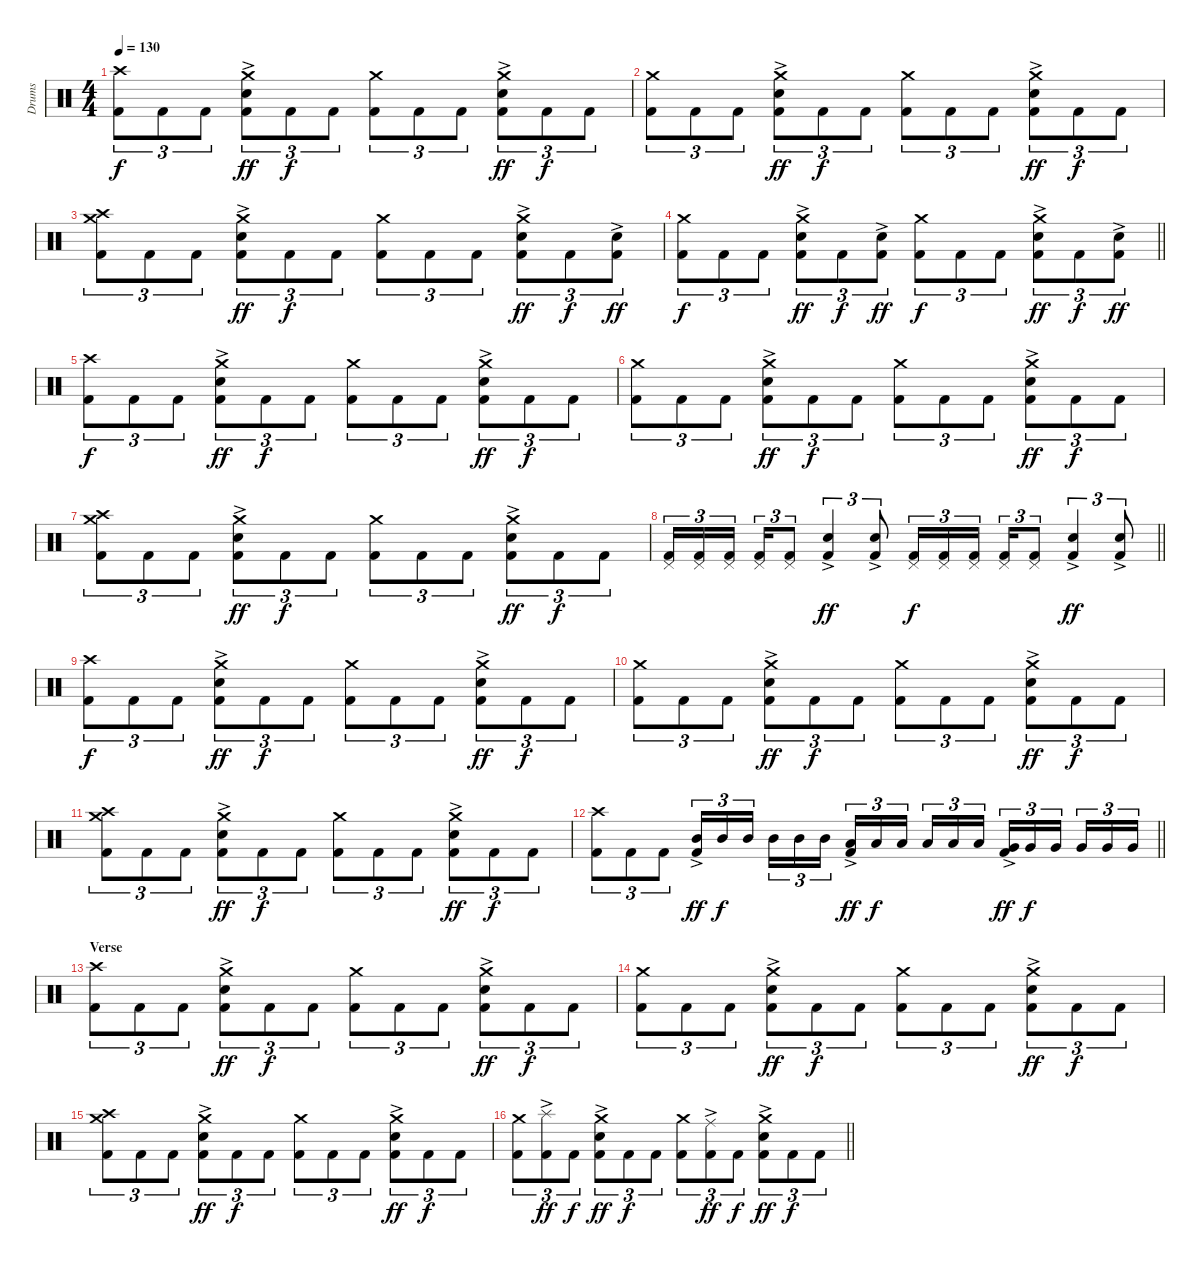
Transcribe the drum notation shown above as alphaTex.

\track ("Drums" "Drums") {instrument percussion}
\staff {score}
\articulation defaults
\ts (4 4)
\section ("" "")
\tempo 130
\clef neutral
\ks c
("Kick (hit) 2" "Crash high (hit)").8{tu (3 2) dy f} "Kick (hit) 2".8{tu (3 2)} "Kick (hit) 2".8{tu (3 2)} ("Kick (hit) 2" "Snare (hit) 2"{ac} "Crash medium (hit)").8{tu (3 2) dy ff} "Kick (hit) 2".8{tu (3 2) dy f} "Kick (hit) 2".8{tu (3 2)} ("Kick (hit) 2" "Crash medium (hit)").8{tu (3 2)} "Kick (hit) 2".8{tu (3 2)} "Kick (hit) 2".8{tu (3 2)} ("Kick (hit) 2" "Snare (hit) 2"{ac} "Crash medium (hit)").8{tu (3 2) dy ff} "Kick (hit) 2".8{tu (3 2) dy f} "Kick (hit) 2".8{tu (3 2)} |
("Kick (hit) 2" "Crash medium (hit)").8{tu (3 2)} "Kick (hit) 2".8{tu (3 2)} "Kick (hit) 2".8{tu (3 2)} ("Kick (hit) 2" "Snare (hit) 2"{ac} "Crash medium (hit)").8{tu (3 2) dy ff} "Kick (hit) 2".8{tu (3 2) dy f} "Kick (hit) 2".8{tu (3 2)} ("Kick (hit) 2" "Crash medium (hit)").8{tu (3 2)} "Kick (hit) 2".8{tu (3 2)} "Kick (hit) 2".8{tu (3 2)} ("Kick (hit) 2" "Snare (hit) 2"{ac} "Crash medium (hit)").8{tu (3 2) dy ff} "Kick (hit) 2".8{tu (3 2) dy f} "Kick (hit) 2".8{tu (3 2)} |
("Kick (hit) 2" "Crash medium (hit)" "Crash high (hit)").8{tu (3 2)} "Kick (hit) 2".8{tu (3 2)} "Kick (hit) 2".8{tu (3 2)} ("Kick (hit) 2" "Snare (hit) 2"{ac} "Crash medium (hit)").8{tu (3 2) dy ff} "Kick (hit) 2".8{tu (3 2) dy f} "Kick (hit) 2".8{tu (3 2)} ("Kick (hit) 2" "Crash medium (hit)").8{tu (3 2)} "Kick (hit) 2".8{tu (3 2)} "Kick (hit) 2".8{tu (3 2)} ("Kick (hit) 2" "Snare (hit) 2"{ac} "Crash medium (hit)").8{tu (3 2) dy ff} "Kick (hit) 2".8{tu (3 2) dy f} ("Kick (hit) 2" "Snare (hit) 2"{ac}).8{tu (3 2) dy ff} |
\barLineRight lightlight
("Kick (hit) 2" "Crash medium (hit)").8{tu (3 2) dy f} "Kick (hit) 2".8{tu (3 2)} "Kick (hit) 2".8{tu (3 2)} ("Kick (hit) 2" "Snare (hit) 2"{ac} "Crash medium (hit)").8{tu (3 2) dy ff} "Kick (hit) 2".8{tu (3 2) dy f} ("Kick (hit) 2" "Snare (hit) 2"{ac}).8{tu (3 2) dy ff} ("Kick (hit) 2" "Crash medium (hit)").8{tu (3 2) dy f} "Kick (hit) 2".8{tu (3 2)} "Kick (hit) 2".8{tu (3 2)} ("Kick (hit) 2" "Snare (hit) 2"{ac} "Crash medium (hit)").8{tu (3 2) dy ff} "Kick (hit) 2".8{tu (3 2) dy f} ("Kick (hit) 2" "Snare (hit) 2"{ac}).8{tu (3 2) dy ff} |
\section ("" "")
("Kick (hit) 2" "Crash high (hit)").8{tu (3 2) dy f} "Kick (hit) 2".8{tu (3 2)} "Kick (hit) 2".8{tu (3 2)} ("Kick (hit) 2" "Snare (hit) 2"{ac} "Crash medium (hit)").8{tu (3 2) dy ff} "Kick (hit) 2".8{tu (3 2) dy f} "Kick (hit) 2".8{tu (3 2)} ("Kick (hit) 2" "Crash medium (hit)").8{tu (3 2)} "Kick (hit) 2".8{tu (3 2)} "Kick (hit) 2".8{tu (3 2)} ("Kick (hit) 2" "Snare (hit) 2"{ac} "Crash medium (hit)").8{tu (3 2) dy ff} "Kick (hit) 2".8{tu (3 2) dy f} "Kick (hit) 2".8{tu (3 2)} |
("Kick (hit) 2" "Crash medium (hit)").8{tu (3 2)} "Kick (hit) 2".8{tu (3 2)} "Kick (hit) 2".8{tu (3 2)} ("Kick (hit) 2" "Snare (hit) 2"{ac} "Crash medium (hit)").8{tu (3 2) dy ff} "Kick (hit) 2".8{tu (3 2) dy f} "Kick (hit) 2".8{tu (3 2)} ("Kick (hit) 2" "Crash medium (hit)").8{tu (3 2)} "Kick (hit) 2".8{tu (3 2)} "Kick (hit) 2".8{tu (3 2)} ("Kick (hit) 2" "Snare (hit) 2"{ac} "Crash medium (hit)").8{tu (3 2) dy ff} "Kick (hit) 2".8{tu (3 2) dy f} "Kick (hit) 2".8{tu (3 2)} |
("Kick (hit) 2" "Crash medium (hit)" "Crash high (hit)").8{tu (3 2)} "Kick (hit) 2".8{tu (3 2)} "Kick (hit) 2".8{tu (3 2)} ("Kick (hit) 2" "Snare (hit) 2"{ac} "Crash medium (hit)").8{tu (3 2) dy ff} "Kick (hit) 2".8{tu (3 2) dy f} "Kick (hit) 2".8{tu (3 2)} ("Kick (hit) 2" "Crash medium (hit)").8{tu (3 2)} "Kick (hit) 2".8{tu (3 2)} "Kick (hit) 2".8{tu (3 2)} ("Kick (hit) 2" "Snare (hit) 2"{ac} "Crash medium (hit)").8{tu (3 2) dy ff} "Kick (hit) 2".8{tu (3 2) dy f} "Kick (hit) 2".8{tu (3 2)} |
\barLineRight lightlight
("Kick (hit) 2" "Pedal Hi-Hat (hit)").16{tu (3 2)} ("Kick (hit) 2" "Pedal Hi-Hat (hit)").16{tu (3 2)} ("Kick (hit) 2" "Pedal Hi-Hat (hit)").16{tu (3 2) beam splitsecondary} ("Kick (hit) 2" "Pedal Hi-Hat (hit)").16{tu (3 2)} ("Kick (hit) 2" "Pedal Hi-Hat (hit)").8{tu (3 2)} ("Kick (hit) 2" "Snare (hit) 2"{ac}).4{tu (3 2) dy ff} ("Kick (hit) 2" "Snare (hit) 2"{ac}).8{tu (3 2)} ("Kick (hit) 2" "Pedal Hi-Hat (hit)").16{tu (3 2) dy f} ("Kick (hit) 2" "Pedal Hi-Hat (hit)").16{tu (3 2)} ("Kick (hit) 2" "Pedal Hi-Hat (hit)").16{tu (3 2) beam splitsecondary} ("Kick (hit) 2" "Pedal Hi-Hat (hit)").16{tu (3 2)} ("Kick (hit) 2" "Pedal Hi-Hat (hit)").8{tu (3 2)} ("Kick (hit) 2" "Snare (hit) 2"{ac}).4{tu (3 2) dy ff} ("Kick (hit) 2" "Snare (hit) 2"{ac}).8{tu (3 2)} |
\section ("" "")
("Kick (hit) 2" "Crash high (hit)").8{tu (3 2) dy f} "Kick (hit) 2".8{tu (3 2)} "Kick (hit) 2".8{tu (3 2)} ("Kick (hit) 2" "Snare (hit) 2"{ac} "Crash medium (hit)").8{tu (3 2) dy ff} "Kick (hit) 2".8{tu (3 2) dy f} "Kick (hit) 2".8{tu (3 2)} ("Kick (hit) 2" "Crash medium (hit)").8{tu (3 2)} "Kick (hit) 2".8{tu (3 2)} "Kick (hit) 2".8{tu (3 2)} ("Kick (hit) 2" "Snare (hit) 2"{ac} "Crash medium (hit)").8{tu (3 2) dy ff} "Kick (hit) 2".8{tu (3 2) dy f} "Kick (hit) 2".8{tu (3 2)} |
("Kick (hit) 2" "Crash medium (hit)").8{tu (3 2)} "Kick (hit) 2".8{tu (3 2)} "Kick (hit) 2".8{tu (3 2)} ("Kick (hit) 2" "Snare (hit) 2"{ac} "Crash medium (hit)").8{tu (3 2) dy ff} "Kick (hit) 2".8{tu (3 2) dy f} "Kick (hit) 2".8{tu (3 2)} ("Kick (hit) 2" "Crash medium (hit)").8{tu (3 2)} "Kick (hit) 2".8{tu (3 2)} "Kick (hit) 2".8{tu (3 2)} ("Kick (hit) 2" "Snare (hit) 2"{ac} "Crash medium (hit)").8{tu (3 2) dy ff} "Kick (hit) 2".8{tu (3 2) dy f} "Kick (hit) 2".8{tu (3 2)} |
("Kick (hit) 2" "Crash medium (hit)" "Crash high (hit)").8{tu (3 2)} "Kick (hit) 2".8{tu (3 2)} "Kick (hit) 2".8{tu (3 2)} ("Kick (hit) 2" "Snare (hit) 2"{ac} "Crash medium (hit)").8{tu (3 2) dy ff} "Kick (hit) 2".8{tu (3 2) dy f} "Kick (hit) 2".8{tu (3 2)} ("Kick (hit) 2" "Crash medium (hit)").8{tu (3 2)} "Kick (hit) 2".8{tu (3 2)} "Kick (hit) 2".8{tu (3 2)} ("Kick (hit) 2" "Snare (hit) 2"{ac} "Crash medium (hit)").8{tu (3 2) dy ff} "Kick (hit) 2".8{tu (3 2) dy f} "Kick (hit) 2".8{tu (3 2)} |
\barLineRight lightlight
("Kick (hit) 2" "Crash high (hit)").8{tu (3 2)} "Kick (hit) 2".8{tu (3 2)} "Kick (hit) 2".8{tu (3 2)} ("Kick (hit) 2"{ac} "Mid Tom (hit)").16{tu (3 2) dy ff} "Mid Tom (hit)".16{tu (3 2) dy f} "Mid Tom (hit)".16{tu (3 2) beam splitsecondary} "Mid Tom (hit)".16{tu (3 2)} "Mid Tom (hit)".16{tu (3 2)} "Mid Tom (hit)".16{tu (3 2)} ("Kick (hit) 2"{ac} "Low Tom (hit)").16{tu (3 2) dy ff} "Low Tom (hit)".16{tu (3 2) dy f} "Low Tom (hit)".16{tu (3 2) beam splitsecondary} "Low Tom (hit)".16{tu (3 2)} "Low Tom (hit)".16{tu (3 2)} "Low Tom (hit)".16{tu (3 2)} ("Kick (hit) 2"{ac} "Very Low Tom (hit)").16{tu (3 2) dy ff} "Very Low Tom (hit)".16{tu (3 2) dy f} "Very Low Tom (hit)".16{tu (3 2) beam splitsecondary} "Very Low Tom (hit)".16{tu (3 2)} "Very Low Tom (hit)".16{tu (3 2)} "Very Low Tom (hit)".16{tu (3 2)} |
\section ("" "Verse")
("Kick (hit) 2" "Crash high (hit)").8{tu (3 2)} "Kick (hit) 2".8{tu (3 2)} "Kick (hit) 2".8{tu (3 2)} ("Kick (hit) 2" "Snare (hit) 2"{ac} "Crash medium (hit)").8{tu (3 2) dy ff} "Kick (hit) 2".8{tu (3 2) dy f} "Kick (hit) 2".8{tu (3 2)} ("Kick (hit) 2" "Crash medium (hit)").8{tu (3 2)} "Kick (hit) 2".8{tu (3 2)} "Kick (hit) 2".8{tu (3 2)} ("Kick (hit) 2" "Snare (hit) 2"{ac} "Crash medium (hit)").8{tu (3 2) dy ff} "Kick (hit) 2".8{tu (3 2) dy f} "Kick (hit) 2".8{tu (3 2)} |
("Kick (hit) 2" "Crash medium (hit)").8{tu (3 2)} "Kick (hit) 2".8{tu (3 2)} "Kick (hit) 2".8{tu (3 2)} ("Kick (hit) 2" "Snare (hit) 2"{ac} "Crash medium (hit)").8{tu (3 2) dy ff} "Kick (hit) 2".8{tu (3 2) dy f} "Kick (hit) 2".8{tu (3 2)} ("Kick (hit) 2" "Crash medium (hit)").8{tu (3 2)} "Kick (hit) 2".8{tu (3 2)} "Kick (hit) 2".8{tu (3 2)} ("Kick (hit) 2" "Snare (hit) 2"{ac} "Crash medium (hit)").8{tu (3 2) dy ff} "Kick (hit) 2".8{tu (3 2) dy f} "Kick (hit) 2".8{tu (3 2)} |
("Kick (hit) 2" "Crash medium (hit)" "Crash high (hit)").8{tu (3 2)} "Kick (hit) 2".8{tu (3 2)} "Kick (hit) 2".8{tu (3 2)} ("Kick (hit) 2" "Snare (hit) 2"{ac} "Crash medium (hit)").8{tu (3 2) dy ff} "Kick (hit) 2".8{tu (3 2) dy f} "Kick (hit) 2".8{tu (3 2)} ("Kick (hit) 2" "Crash medium (hit)").8{tu (3 2)} "Kick (hit) 2".8{tu (3 2)} "Kick (hit) 2".8{tu (3 2)} ("Kick (hit) 2" "Snare (hit) 2"{ac} "Crash medium (hit)").8{tu (3 2) dy ff} "Kick (hit) 2".8{tu (3 2) dy f} "Kick (hit) 2".8{tu (3 2)} |
\barLineRight lightlight
("Kick (hit) 2" "Crash medium (hit)").8{tu (3 2)} ("Kick (hit) 2" "Splash (hit)"{ac}).8{tu (3 2) dy ff} "Kick (hit) 2".8{tu (3 2) dy f} ("Kick (hit) 2" "Snare (hit) 2"{ac} "Crash medium (hit)").8{tu (3 2) dy ff} "Kick (hit) 2".8{tu (3 2) dy f} "Kick (hit) 2".8{tu (3 2)} ("Kick (hit) 2" "Crash medium (hit)").8{tu (3 2)} ("Kick (hit) 2" "Ride (middle)"{ac}).8{tu (3 2) dy ff} "Kick (hit) 2".8{tu (3 2) dy f} ("Kick (hit) 2" "Snare (hit) 2"{ac} "Crash medium (hit)").8{tu (3 2) dy ff} "Kick (hit) 2".8{tu (3 2) dy f} "Kick (hit) 2".8{tu (3 2)}
